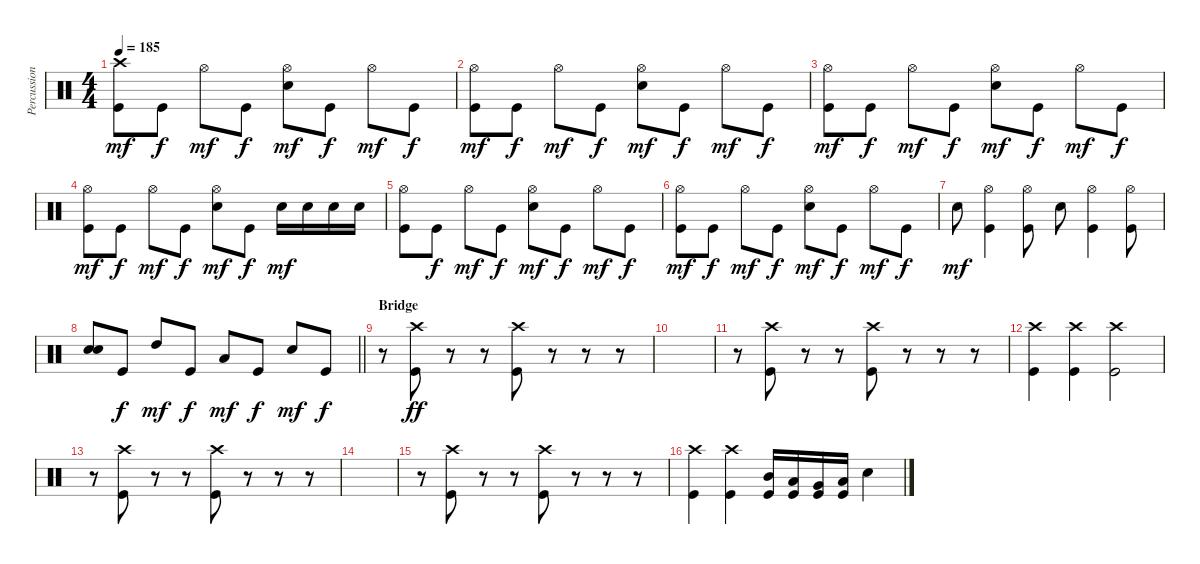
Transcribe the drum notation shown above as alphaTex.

\track ("Percussion" "Percussion") {instrument percussion}
\staff {score}
\articulation defaults
\ts (4 4)
\tempo 185
\clef neutral
\ks c
("Crash high (hit)" "Kick (hit)").8{dy mf} "Kick (hit)".8{dy f} "Hi-Hat (open)".8{dy mf} "Kick (hit)".8{dy f} ("Snare (hit) 2" "Hi-Hat (open)").8{dy mf} "Kick (hit)".8{dy f} "Hi-Hat (open)".8{dy mf} "Kick (hit)".8{dy f} |
("Kick (hit)" "Hi-Hat (open)").8{dy mf} "Kick (hit)".8{dy f} "Hi-Hat (open)".8{dy mf} "Kick (hit)".8{dy f} ("Snare (hit) 2" "Hi-Hat (open)").8{dy mf} "Kick (hit)".8{dy f} "Hi-Hat (open)".8{dy mf} "Kick (hit)".8{dy f} |
("Hi-Hat (open)" "Kick (hit)").8{dy mf} "Kick (hit)".8{dy f} "Hi-Hat (open)".8{dy mf} "Kick (hit)".8{dy f} ("Snare (hit) 2" "Hi-Hat (open)").8{dy mf} "Kick (hit)".8{dy f} "Hi-Hat (open)".8{dy mf} "Kick (hit)".8{dy f} |
("Hi-Hat (open)" "Kick (hit)").8{dy mf} "Kick (hit)".8{dy f} "Hi-Hat (open)".8{dy mf} "Kick (hit)".8{dy f} ("Snare (hit) 2" "Hi-Hat (open)").8{dy mf} "Kick (hit)".8{dy f} "Snare (hit) 2".16{dy mf} "Snare (hit) 2".16 "Snare (hit) 2".16 "Snare (hit) 2".16 |
("Kick (hit)" "Hi-Hat (open)").8 "Kick (hit)".8{dy f} "Hi-Hat (open)".8{dy mf} "Kick (hit)".8{dy f} ("Snare (hit) 2" "Hi-Hat (open)").8{dy mf} "Kick (hit)".8{dy f} "Hi-Hat (open)".8{dy mf} "Kick (hit)".8{dy f} |
("Kick (hit)" "Hi-Hat (open)").8{dy mf} "Kick (hit)".8{dy f} "Hi-Hat (open)".8{dy mf} "Kick (hit)".8{dy f} ("Snare (hit) 2" "Hi-Hat (open)").8{dy mf} "Kick (hit)".8{dy f} "Hi-Hat (open)".8{dy mf} "Kick (hit)".8{dy f} |
"Snare (hit) 2".8{dy mf} ("Hi-Hat (open)" "Kick (hit)").4 ("Hi-Hat (open)" "Kick (hit)").8 "Snare (hit) 2".8 ("Kick (hit)" "Hi-Hat (open)").4 ("Kick (hit)" "Hi-Hat (open)").8 |
\barLineRight lightlight
("Snare (hit) 2" "Snare (hit) 2").8 "Kick (hit)".8{dy f} "High Tom (hit)".8{dy mf} "Kick (hit)".8{dy f} "Low Tom (hit)".8{dy mf} "Kick (hit)".8{dy f} "Snare (hit) 2".8{dy mf} "Kick (hit)".8{dy f} |
\section ("" "Bridge")
r.8 ("Crash high (hit)" "Kick (hit)").8{dy ff} r.8 r.8 ("Crash high (hit)" "Kick (hit)").8 r.8 r.8 r.8 |
|
r.8 ("Kick (hit)" "Crash high (hit)").8 r.8 r.8 ("Crash high (hit)" "Kick (hit)").8 r.8 r.8 r.8 |
("Kick (hit)" "Crash high (hit)").4 ("Kick (hit)" "Crash high (hit)").4 ("Crash high (hit)" "Kick (hit)").2 |
r.8 ("Crash high (hit)" "Kick (hit)").8 r.8 r.8 ("Crash high (hit)" "Kick (hit)").8 r.8 r.8 r.8 |
|
r.8 ("Kick (hit)" "Crash high (hit)").8 r.8 r.8 ("Crash high (hit)" "Kick (hit)").8 r.8 r.8 r.8 |
("Kick (hit)" "Crash high (hit)").4 ("Kick (hit)" "Crash high (hit)").4 ("Mid Tom (hit)" "Kick (hit)").16 ("Low Tom (hit)" "Kick (hit)").16 ("Very Low Tom (hit)" "Kick (hit)").16 ("Low Floor Tom (hit)" "Kick (hit)").16 "Snare (hit) 2".4
